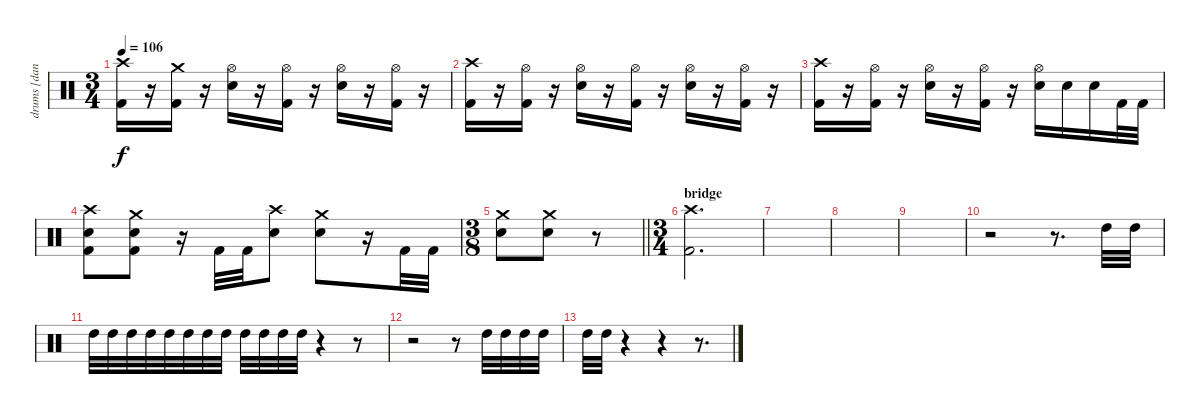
\track ("drums [danny carey]" "drums [dan") {instrument percussion}
\staff {score}
\articulation defaults
\ts (3 4)
\tempo 106
\clef neutral
\ks c
("Crash high (hit)" "Kick (hit) 2").16{dy f} r.16 ("Crash medium (hit)" "Kick (hit) 2").16 r.16 ("Hi-Hat (open)" "Electric Snare (hit)").16 r.16 ("Hi-Hat (open)" "Kick (hit) 2").16 r.16 ("Hi-Hat (open)" "Electric Snare (hit)").16 r.16 ("Hi-Hat (open)" "Kick (hit) 2").16 r.16 |
("Crash high (hit)" "Kick (hit) 2").16 r.16 ("Hi-Hat (open)" "Kick (hit) 2").16 r.16 ("Hi-Hat (open)" "Electric Snare (hit)").16 r.16 ("Hi-Hat (open)" "Kick (hit) 2").16 r.16 ("Hi-Hat (open)" "Electric Snare (hit)").16 r.16 ("Hi-Hat (open)" "Kick (hit) 2").16 r.16 |
("Crash high (hit)" "Kick (hit) 2").16 r.16 ("Hi-Hat (open)" "Kick (hit) 2").16 r.16 ("Hi-Hat (open)" "Electric Snare (hit)").16 r.16 ("Hi-Hat (open)" "Kick (hit) 2").16 r.16 ("Hi-Hat (open)" "Electric Snare (hit)").16 "Electric Snare (hit)".16 "Electric Snare (hit)".16 "Kick (hit) 2".32 "Kick (hit) 2".32 |
("Crash high (hit)" "Electric Snare (hit)" "Kick (hit) 2").8 ("Crash medium (hit)" "Electric Snare (hit)" "Kick (hit) 2").8 r.16 "Kick (hit) 2".32 "Kick (hit) 2".32 ("Crash high (hit)" "Electric Snare (hit)").8 ("Crash medium (hit)" "Electric Snare (hit)").8 r.16 "Kick (hit) 2".32 "Kick (hit) 2".32 |
\ts (3 8)
\barLineRight lightlight
("Crash medium (hit)" "Electric Snare (hit)").8 ("Crash medium (hit)" "Electric Snare (hit)").8 r.8 |
\ts (3 4)
\section ("" "bridge")
("Crash high (hit)" "Kick (hit) 2").2{d} |
|
|
|
r.2{volume 5} r.8{d} "High Tom (hit)".32{volume 11} "High Tom (hit)".32 |
"High Tom (hit)".32 "High Tom (hit)".32 "High Tom (hit)".32 "High Tom (hit)".32 "High Tom (hit)".32 "High Tom (hit)".32 "High Tom (hit)".32 "High Tom (hit)".32 "High Tom (hit)".32 "High Tom (hit)".32 "High Tom (hit)".32 "High Tom (hit)".32 r.4 r.8 |
r.2{volume 5} r.8 "High Tom (hit)".32{volume 11} "High Tom (hit)".32 "High Tom (hit)".32 "High Tom (hit)".32 |
"High Tom (hit)".32 "High Tom (hit)".32 r.4 r.4 r.8{d}
